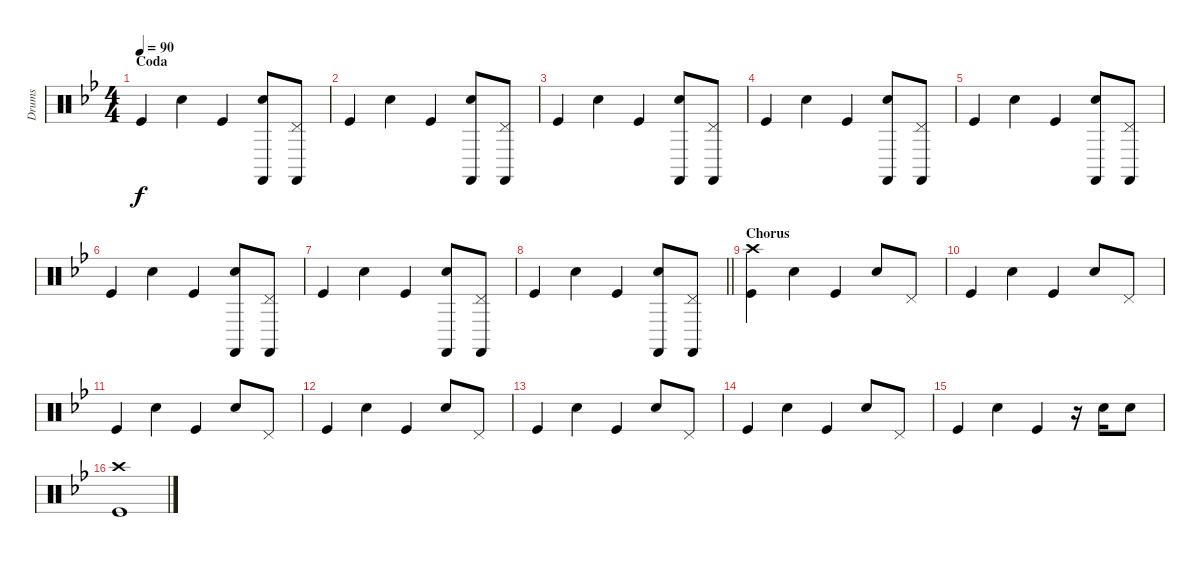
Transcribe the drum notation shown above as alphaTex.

\track ("Drums" "Drums") {instrument percussion}
\staff {score}
\articulation defaults
\ts (4 4)
\section ("" "Coda")
\tempo 90
\clef neutral
\ks bb "Kick (hit)".4{dy f} "Electric Snare (hit)".4 "Kick (hit)".4
("Electric Snare (hit)" "Castanets (hit)").8 ("Castanets (hit)" "Pedal Hi-Hat (hit)").8 |
"Kick (hit)".4 "Electric Snare (hit)".4 "Kick (hit)".4 ("Electric Snare (hit)" "Castanets (hit)").8 ("Castanets (hit)" "Pedal Hi-Hat (hit)").8 |
"Kick (hit)".4 "Electric Snare (hit)".4 "Kick (hit)".4 ("Electric Snare (hit)" "Castanets (hit)").8 ("Castanets (hit)" "Pedal Hi-Hat (hit)").8 |
"Kick (hit)".4 "Electric Snare (hit)".4 "Kick (hit)".4 ("Electric Snare (hit)" "Castanets (hit)").8 ("Castanets (hit)" "Pedal Hi-Hat (hit)").8 |
"Kick (hit)".4 "Electric Snare (hit)".4 "Kick (hit)".4 ("Electric Snare (hit)" "Castanets (hit)").8 ("Castanets (hit)" "Pedal Hi-Hat (hit)").8 |
"Kick (hit)".4 "Electric Snare (hit)".4 "Kick (hit)".4 ("Electric Snare (hit)" "Castanets (hit)").8 ("Castanets (hit)" "Pedal Hi-Hat (hit)").8 |
"Kick (hit)".4 "Electric Snare (hit)".4 "Kick (hit)".4 ("Electric Snare (hit)" "Castanets (hit)").8 ("Castanets (hit)" "Pedal Hi-Hat (hit)").8 |
\barLineRight lightlight "Kick (hit)".4 "Electric Snare (hit)".4 "Kick (hit)".4
("Electric Snare (hit)" "Castanets (hit)").8 ("Castanets (hit)" "Pedal Hi-Hat (hit)").8 |
\section ("" "Chorus")
("Kick (hit)" "Crash high (hit)").4 "Electric Snare (hit)".4 "Kick (hit)".4 "Electric Snare (hit)".8 "Pedal Hi-Hat (hit)".8 |
"Kick (hit)".4 "Electric Snare (hit)".4 "Kick (hit)".4 "Electric Snare (hit)".8 "Pedal Hi-Hat (hit)".8 |
"Kick (hit)".4 "Electric Snare (hit)".4 "Kick (hit)".4 "Electric Snare (hit)".8 "Pedal Hi-Hat (hit)".8 |
"Kick (hit)".4 "Electric Snare (hit)".4 "Kick (hit)".4 "Electric Snare (hit)".8 "Pedal Hi-Hat (hit)".8 |
"Kick (hit)".4 "Electric Snare (hit)".4 "Kick (hit)".4 "Electric Snare (hit)".8 "Pedal Hi-Hat (hit)".8 |
"Kick (hit)".4 "Electric Snare (hit)".4 "Kick (hit)".4 "Electric Snare (hit)".8 "Pedal Hi-Hat (hit)".8 |
"Kick (hit)".4 "Electric Snare (hit)".4 "Kick (hit)".4 r.16 "Electric Snare (hit)".16 "Electric Snare (hit)".8 |
("Kick (hit)" "Crash high (hit)").1
